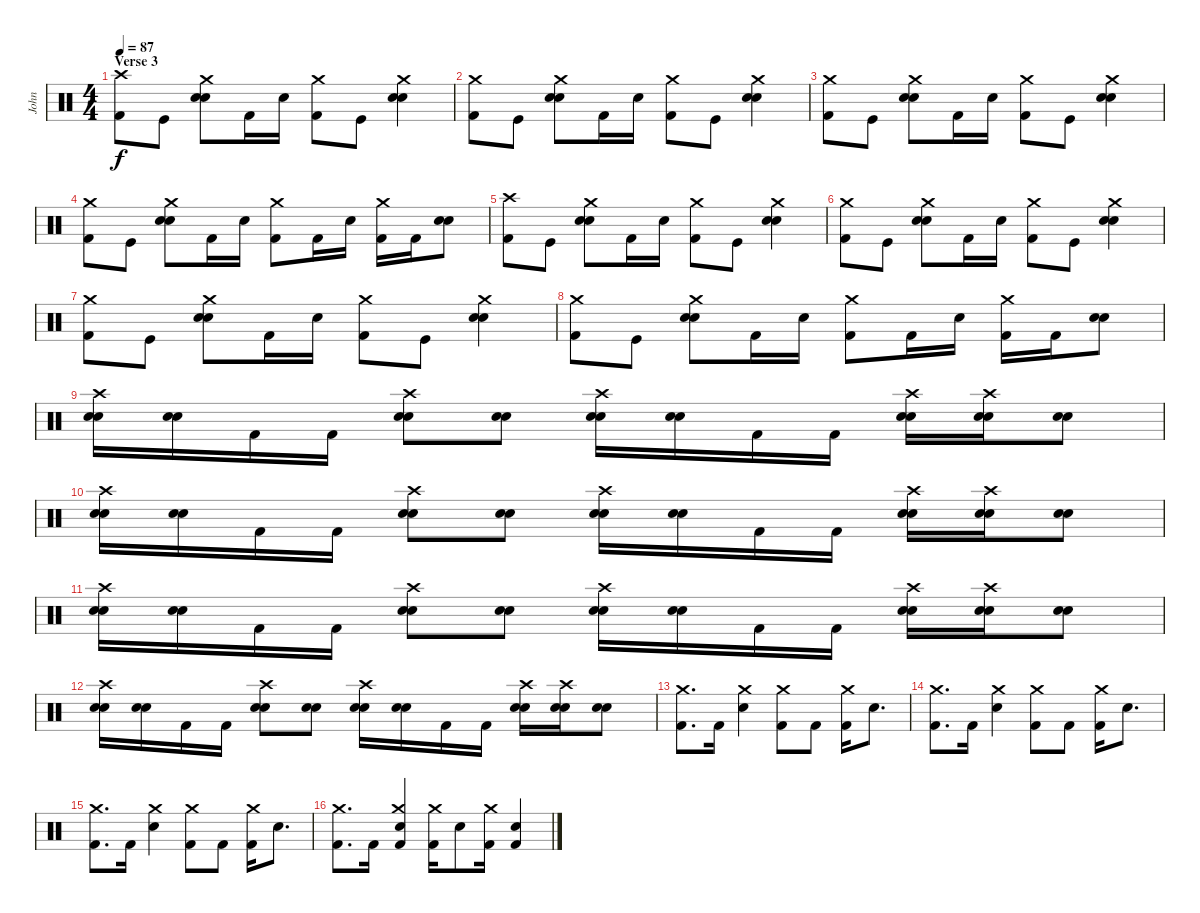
\track ("John" "John") {instrument percussion}
\staff {score}
\articulation defaults
\ts (4 4)
\section ("" "Verse 3")
\tempo 87
\clef neutral
\ks c
("Crash high (hit)" "Kick (hit) 2").8{dy f} "Kick (hit)".8 ("Crash medium (hit)" "Electric Snare (hit)" "Snare (hit) 2").8 "Kick (hit) 2".16 "Electric Snare (hit)".16 ("Crash medium (hit)" "Kick (hit) 2").8 "Kick (hit)".8 ("Crash medium (hit)" "Electric Snare (hit)" "Snare (hit) 2").4 |
("Crash medium (hit)" "Kick (hit) 2").8 "Kick (hit)".8 ("Crash medium (hit)" "Electric Snare (hit)" "Snare (hit) 2").8 "Kick (hit) 2".16 "Electric Snare (hit)".16 ("Crash medium (hit)" "Kick (hit) 2").8 "Kick (hit)".8 ("Crash medium (hit)" "Electric Snare (hit)" "Snare (hit) 2").4 |
("Crash medium (hit)" "Kick (hit) 2").8 "Kick (hit)".8 ("Crash medium (hit)" "Electric Snare (hit)" "Snare (hit) 2").8 "Kick (hit) 2".16 "Electric Snare (hit)".16 ("Crash medium (hit)" "Kick (hit) 2").8 "Kick (hit)".8 ("Crash medium (hit)" "Electric Snare (hit)" "Snare (hit) 2").4 |
("Crash medium (hit)" "Kick (hit) 2").8 "Kick (hit)".8 ("Crash medium (hit)" "Electric Snare (hit)" "Snare (hit) 2").8 "Kick (hit) 2".16 "Electric Snare (hit)".16 ("Crash medium (hit)" "Kick (hit) 2").8 "Kick (hit) 2".16 "Electric Snare (hit)".16 ("Crash medium (hit)" "Kick (hit) 2").16 "Kick (hit) 2".16 ("Electric Snare (hit)" "Snare (hit) 2").8 |
("Crash high (hit)" "Kick (hit) 2").8 "Kick (hit)".8 ("Crash medium (hit)" "Electric Snare (hit)" "Snare (hit) 2").8 "Kick (hit) 2".16 "Electric Snare (hit)".16 ("Crash medium (hit)" "Kick (hit) 2").8 "Kick (hit)".8 ("Crash medium (hit)" "Electric Snare (hit)" "Snare (hit) 2").4 |
("Crash medium (hit)" "Kick (hit) 2").8 "Kick (hit)".8 ("Crash medium (hit)" "Electric Snare (hit)" "Snare (hit) 2").8 "Kick (hit) 2".16 "Electric Snare (hit)".16 ("Crash medium (hit)" "Kick (hit) 2").8 "Kick (hit)".8 ("Crash medium (hit)" "Electric Snare (hit)" "Snare (hit) 2").4 |
("Crash medium (hit)" "Kick (hit) 2").8 "Kick (hit)".8 ("Crash medium (hit)" "Electric Snare (hit)" "Snare (hit) 2").8 "Kick (hit) 2".16 "Electric Snare (hit)".16 ("Crash medium (hit)" "Kick (hit) 2").8 "Kick (hit)".8 ("Crash medium (hit)" "Electric Snare (hit)" "Snare (hit) 2").4 |
("Crash medium (hit)" "Kick (hit) 2").8 "Kick (hit)".8 ("Crash medium (hit)" "Electric Snare (hit)" "Snare (hit) 2").8 "Kick (hit) 2".16 "Electric Snare (hit)".16 ("Crash medium (hit)" "Kick (hit) 2").8 "Kick (hit) 2".16 "Electric Snare (hit)".16 ("Crash medium (hit)" "Kick (hit) 2").16 "Kick (hit) 2".16 ("Electric Snare (hit)" "Snare (hit) 2").8 |
("Crash high (hit)" "Snare (hit) 2" "Electric Snare (hit)").16 ("Snare (hit) 2" "Electric Snare (hit)").16 "Kick (hit) 2".16 "Kick (hit) 2".16 ("Crash high (hit)" "Snare (hit) 2" "Electric Snare (hit)").8 ("Snare (hit) 2" "Electric Snare (hit)").8 ("Crash high (hit)" "Snare (hit) 2" "Electric Snare (hit)").16 ("Snare (hit) 2" "Electric Snare (hit)").16 "Kick (hit) 2".16 "Kick (hit) 2".16 ("Crash high (hit)" "Snare (hit) 2" "Electric Snare (hit)").16 ("Crash high (hit)" "Snare (hit) 2" "Electric Snare (hit)").16 ("Snare (hit) 2" "Electric Snare (hit)").8 |
("Crash high (hit)" "Snare (hit) 2" "Electric Snare (hit)").16 ("Snare (hit) 2" "Electric Snare (hit)").16 "Kick (hit) 2".16 "Kick (hit) 2".16 ("Crash high (hit)" "Snare (hit) 2" "Electric Snare (hit)").8 ("Snare (hit) 2" "Electric Snare (hit)").8 ("Crash high (hit)" "Snare (hit) 2" "Electric Snare (hit)").16 ("Snare (hit) 2" "Electric Snare (hit)").16 "Kick (hit) 2".16 "Kick (hit) 2".16 ("Crash high (hit)" "Snare (hit) 2" "Electric Snare (hit)").16 ("Crash high (hit)" "Snare (hit) 2" "Electric Snare (hit)").16 ("Snare (hit) 2" "Electric Snare (hit)").8 |
("Crash high (hit)" "Snare (hit) 2" "Electric Snare (hit)").16 ("Snare (hit) 2" "Electric Snare (hit)").16 "Kick (hit) 2".16 "Kick (hit) 2".16 ("Crash high (hit)" "Snare (hit) 2" "Electric Snare (hit)").8 ("Snare (hit) 2" "Electric Snare (hit)").8 ("Crash high (hit)" "Snare (hit) 2" "Electric Snare (hit)").16 ("Snare (hit) 2" "Electric Snare (hit)").16 "Kick (hit) 2".16 "Kick (hit) 2".16 ("Crash high (hit)" "Snare (hit) 2" "Electric Snare (hit)").16 ("Crash high (hit)" "Snare (hit) 2" "Electric Snare (hit)").16 ("Snare (hit) 2" "Electric Snare (hit)").8 |
("Crash high (hit)" "Snare (hit) 2" "Electric Snare (hit)").16 ("Snare (hit) 2" "Electric Snare (hit)").16 "Kick (hit) 2".16 "Kick (hit) 2".16 ("Crash high (hit)" "Snare (hit) 2" "Electric Snare (hit)").8 ("Snare (hit) 2" "Electric Snare (hit)").8 ("Crash high (hit)" "Snare (hit) 2" "Electric Snare (hit)").16 ("Snare (hit) 2" "Electric Snare (hit)").16 "Kick (hit) 2".16 "Kick (hit) 2".16 ("Crash high (hit)" "Snare (hit) 2" "Electric Snare (hit)").16 ("Crash high (hit)" "Snare (hit) 2" "Electric Snare (hit)").16 ("Snare (hit) 2" "Electric Snare (hit)").8 |
("Crash medium (hit)" "Kick (hit) 2").8{d} "Kick (hit) 2".16 ("Crash medium (hit)" "Electric Snare (hit)").4 ("Crash medium (hit)" "Kick (hit) 2").8 "Kick (hit) 2".8 ("Crash medium (hit)" "Kick (hit) 2").16 "Electric Snare (hit)".8{d} |
("Crash medium (hit)" "Kick (hit) 2").8{d} "Kick (hit) 2".16 ("Crash medium (hit)" "Electric Snare (hit)").4 ("Crash medium (hit)" "Kick (hit) 2").8 "Kick (hit) 2".8 ("Crash medium (hit)" "Kick (hit) 2").16 "Electric Snare (hit)".8{d} |
("Crash medium (hit)" "Kick (hit) 2").8{d} "Kick (hit) 2".16 ("Crash medium (hit)" "Electric Snare (hit)").4 ("Crash medium (hit)" "Kick (hit) 2").8 "Kick (hit) 2".8 ("Crash medium (hit)" "Kick (hit) 2").16 "Electric Snare (hit)".8{d} |
("Crash medium (hit)" "Kick (hit) 2").8{d} "Kick (hit) 2".16 ("Crash medium (hit)" "Electric Snare (hit)" "Kick (hit) 2").4 ("Crash medium (hit)" "Kick (hit) 2").16 "Electric Snare (hit)".8 ("Crash medium (hit)" "Kick (hit) 2").16 ("Electric Snare (hit)" "Kick (hit) 2").4
